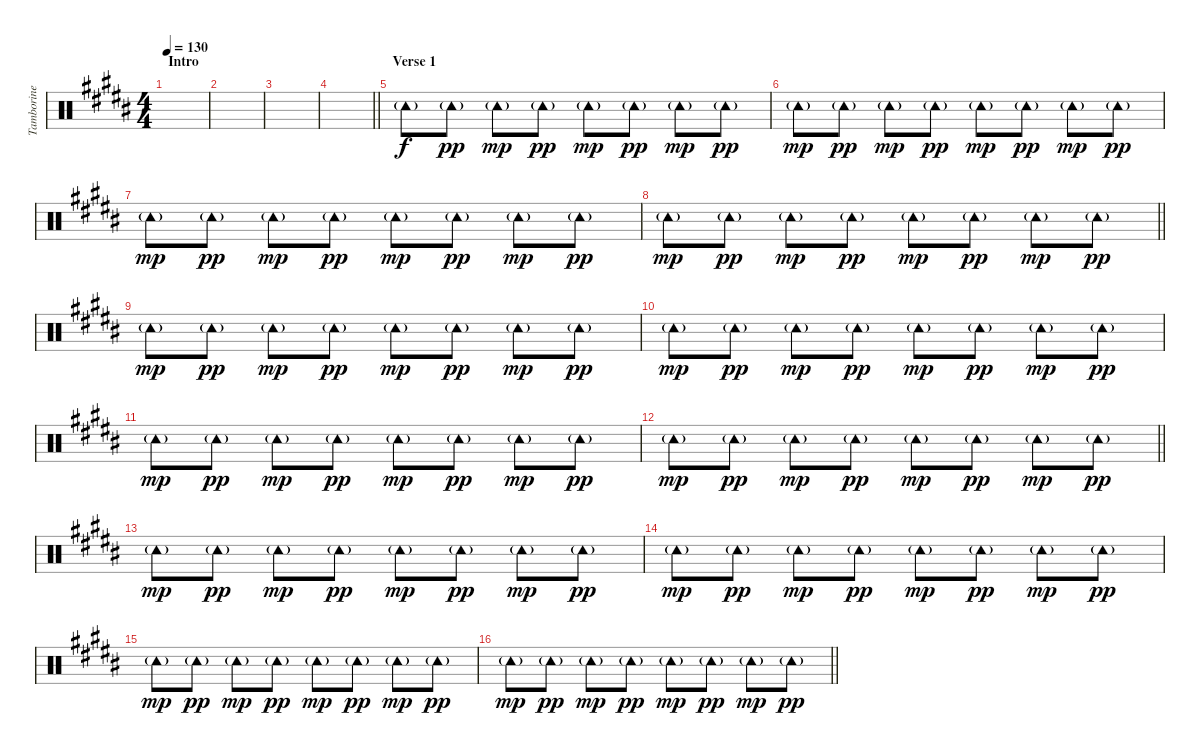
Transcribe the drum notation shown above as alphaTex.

\track ("Tamborine" "Tamborine") {instrument percussion}
\staff {score}
\articulation defaults
\ts (4 4)
\section ("" "Intro")
\tempo 130
\clef neutral
\ks b
|
|
|
\barLineRight lightlight
|
\section ("" "Verse 1")
"Tambourine (hit)"{g}.8 "Tambourine (hit)"{g}.8{dy pp} "Tambourine (hit)"{g}.8{dy mp} "Tambourine (hit)"{g}.8{dy pp} "Tambourine (hit)"{g}.8{dy mp} "Tambourine (hit)"{g}.8{dy pp} "Tambourine (hit)"{g}.8{dy mp} "Tambourine (hit)"{g}.8{dy pp} |
"Tambourine (hit)"{g}.8{dy mp} "Tambourine (hit)"{g}.8{dy pp} "Tambourine (hit)"{g}.8{dy mp} "Tambourine (hit)"{g}.8{dy pp} "Tambourine (hit)"{g}.8{dy mp} "Tambourine (hit)"{g}.8{dy pp} "Tambourine (hit)"{g}.8{dy mp} "Tambourine (hit)"{g}.8{dy pp} |
"Tambourine (hit)"{g}.8{dy mp} "Tambourine (hit)"{g}.8{dy pp} "Tambourine (hit)"{g}.8{dy mp} "Tambourine (hit)"{g}.8{dy pp} "Tambourine (hit)"{g}.8{dy mp} "Tambourine (hit)"{g}.8{dy pp} "Tambourine (hit)"{g}.8{dy mp} "Tambourine (hit)"{g}.8{dy pp} |
\barLineRight lightlight "Tambourine (hit)"{g}.8{dy mp} "Tambourine (hit)"{g}.8{dy pp} "Tambourine (hit)"{g}.8{dy mp} "Tambourine (hit)"{g}.8{dy pp} "Tambourine (hit)"{g}.8{dy mp} "Tambourine (hit)"{g}.8{dy pp} "Tambourine (hit)"{g}.8{dy mp} "Tambourine (hit)"{g}.8{dy pp}
|
"Tambourine (hit)"{g}.8{dy mp} "Tambourine (hit)"{g}.8{dy pp} "Tambourine (hit)"{g}.8{dy mp} "Tambourine (hit)"{g}.8{dy pp} "Tambourine (hit)"{g}.8{dy mp} "Tambourine (hit)"{g}.8{dy pp} "Tambourine (hit)"{g}.8{dy mp} "Tambourine (hit)"{g}.8{dy pp} |
"Tambourine (hit)"{g}.8{dy mp} "Tambourine (hit)"{g}.8{dy pp} "Tambourine (hit)"{g}.8{dy mp} "Tambourine (hit)"{g}.8{dy pp} "Tambourine (hit)"{g}.8{dy mp} "Tambourine (hit)"{g}.8{dy pp} "Tambourine (hit)"{g}.8{dy mp} "Tambourine (hit)"{g}.8{dy pp} |
"Tambourine (hit)"{g}.8{dy mp} "Tambourine (hit)"{g}.8{dy pp} "Tambourine (hit)"{g}.8{dy mp} "Tambourine (hit)"{g}.8{dy pp} "Tambourine (hit)"{g}.8{dy mp} "Tambourine (hit)"{g}.8{dy pp} "Tambourine (hit)"{g}.8{dy mp} "Tambourine (hit)"{g}.8{dy pp} |
\barLineRight lightlight "Tambourine (hit)"{g}.8{dy mp} "Tambourine (hit)"{g}.8{dy pp} "Tambourine (hit)"{g}.8{dy mp} "Tambourine (hit)"{g}.8{dy pp} "Tambourine (hit)"{g}.8{dy mp} "Tambourine (hit)"{g}.8{dy pp} "Tambourine (hit)"{g}.8{dy mp} "Tambourine (hit)"{g}.8{dy pp}
|
"Tambourine (hit)"{g}.8{dy mp} "Tambourine (hit)"{g}.8{dy pp} "Tambourine (hit)"{g}.8{dy mp} "Tambourine (hit)"{g}.8{dy pp} "Tambourine (hit)"{g}.8{dy mp} "Tambourine (hit)"{g}.8{dy pp} "Tambourine (hit)"{g}.8{dy mp} "Tambourine (hit)"{g}.8{dy pp} |
"Tambourine (hit)"{g}.8{dy mp} "Tambourine (hit)"{g}.8{dy pp} "Tambourine (hit)"{g}.8{dy mp} "Tambourine (hit)"{g}.8{dy pp} "Tambourine (hit)"{g}.8{dy mp} "Tambourine (hit)"{g}.8{dy pp} "Tambourine (hit)"{g}.8{dy mp} "Tambourine (hit)"{g}.8{dy pp} |
"Tambourine (hit)"{g}.8{dy mp} "Tambourine (hit)"{g}.8{dy pp} "Tambourine (hit)"{g}.8{dy mp} "Tambourine (hit)"{g}.8{dy pp} "Tambourine (hit)"{g}.8{dy mp} "Tambourine (hit)"{g}.8{dy pp} "Tambourine (hit)"{g}.8{dy mp} "Tambourine (hit)"{g}.8{dy pp} |
\barLineRight lightlight "Tambourine (hit)"{g}.8{dy mp} "Tambourine (hit)"{g}.8{dy pp} "Tambourine (hit)"{g}.8{dy mp} "Tambourine (hit)"{g}.8{dy pp} "Tambourine (hit)"{g}.8{dy mp} "Tambourine (hit)"{g}.8{dy pp} "Tambourine (hit)"{g}.8{dy mp} "Tambourine (hit)"{g}.8{dy pp}
